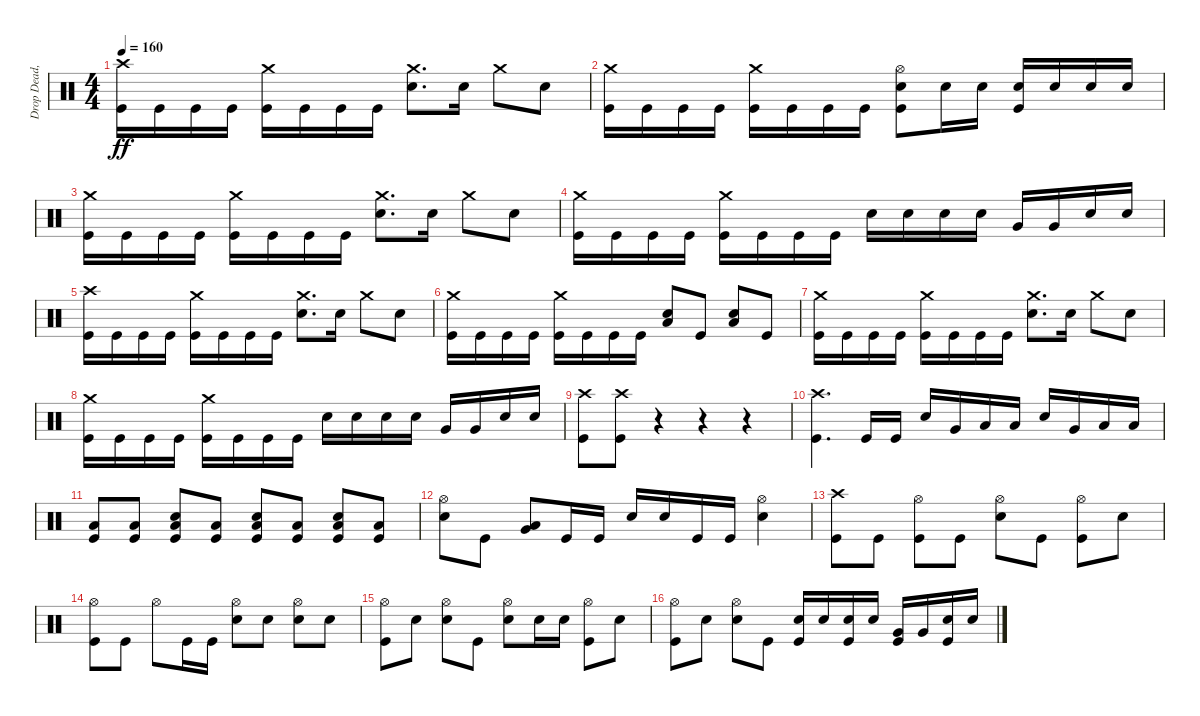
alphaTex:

\track ("Drop Dead, Johnny" "Drop Dead,") {instrument percussion}
\staff {score}
\articulation defaults
\ts (4 4)
\tempo 160
\clef neutral
\ks c
("Crash high (hit)" "Kick (hit)").16{dy ff} "Kick (hit)".16 "Kick (hit)".16 "Kick (hit)".16 ("Crash medium (hit)" "Kick (hit)").16 "Kick (hit)".16 "Kick (hit)".16 "Kick (hit)".16 ("Crash medium (hit)" "Electric Snare (hit)").8{d} "Electric Snare (hit)".16 "Crash medium (hit)".8 "Electric Snare (hit)".8 |
("Crash medium (hit)" "Kick (hit)").16 "Kick (hit)".16 "Kick (hit)".16 "Kick (hit)".16 ("Crash medium (hit)" "Kick (hit)").16 "Kick (hit)".16 "Kick (hit)".16 "Kick (hit)".16 ("Hi-Hat (open)" "Electric Snare (hit)" "Kick (hit)").8 "Electric Snare (hit)".16 "Electric Snare (hit)".16 ("Electric Snare (hit)" "Kick (hit)").16 "Electric Snare (hit)".16 "Electric Snare (hit)".16 "Electric Snare (hit)".16 |
("Crash medium (hit)" "Kick (hit)").16 "Kick (hit)".16 "Kick (hit)".16 "Kick (hit)".16 ("Crash medium (hit)" "Kick (hit)").16 "Kick (hit)".16 "Kick (hit)".16 "Kick (hit)".16 ("Crash medium (hit)" "Electric Snare (hit)").8{d} "Electric Snare (hit)".16 "Crash medium (hit)".8 "Electric Snare (hit)".8 |
("Crash medium (hit)" "Kick (hit)").16 "Kick (hit)".16 "Kick (hit)".16 "Kick (hit)".16 ("Crash medium (hit)" "Kick (hit)").16 "Kick (hit)".16 "Kick (hit)".16 "Kick (hit)".16 "Electric Snare (hit)".16 "Electric Snare (hit)".16 "Electric Snare (hit)".16 "Electric Snare (hit)".16 "Very Low Tom (hit)".16 "Very Low Tom (hit)".16 "Electric Snare (hit)".16 "Electric Snare (hit)".16 |
("Crash high (hit)" "Kick (hit)").16 "Kick (hit)".16 "Kick (hit)".16 "Kick (hit)".16 ("Crash medium (hit)" "Kick (hit)").16 "Kick (hit)".16 "Kick (hit)".16 "Kick (hit)".16 ("Crash medium (hit)" "Electric Snare (hit)").8{d} "Electric Snare (hit)".16 "Crash medium (hit)".8 "Electric Snare (hit)".8 |
("Crash medium (hit)" "Kick (hit)").16 "Kick (hit)".16 "Kick (hit)".16 "Kick (hit)".16 ("Crash medium (hit)" "Kick (hit)").16 "Kick (hit)".16 "Kick (hit)".16 "Kick (hit)".16 ("Low Floor Tom (hit)" "Electric Snare (hit)").8 "Kick (hit)".8 ("Low Floor Tom (hit)" "Electric Snare (hit)").8 "Kick (hit)".8 |
("Crash medium (hit)" "Kick (hit)").16 "Kick (hit)".16 "Kick (hit)".16 "Kick (hit)".16 ("Crash medium (hit)" "Kick (hit)").16 "Kick (hit)".16 "Kick (hit)".16 "Kick (hit)".16 ("Crash medium (hit)" "Electric Snare (hit)").8{d} "Electric Snare (hit)".16 "Crash medium (hit)".8 "Electric Snare (hit)".8 |
("Crash medium (hit)" "Kick (hit)").16 "Kick (hit)".16 "Kick (hit)".16 "Kick (hit)".16 ("Crash medium (hit)" "Kick (hit)").16 "Kick (hit)".16 "Kick (hit)".16 "Kick (hit)".16 "Electric Snare (hit)".16 "Electric Snare (hit)".16 "Electric Snare (hit)".16 "Electric Snare (hit)".16 "Very Low Tom (hit)".16 "Very Low Tom (hit)".16 "Electric Snare (hit)".16 "Electric Snare (hit)".16 |
("Crash high (hit)" "Kick (hit)").8 ("Crash high (hit)" "Kick (hit)").8 r.4{volume 0} r.4 r.4 |
("Crash high (hit)" "Kick (hit)").4{d volume 16} "Kick (hit)".16 "Kick (hit)".16 "Electric Snare (hit)".16 "Very Low Tom (hit)".16 "Low Floor Tom (hit)".16 "Low Floor Tom (hit)".16 "Electric Snare (hit)".16 "Very Low Tom (hit)".16 "Low Floor Tom (hit)".16 "Low Floor Tom (hit)".16 |
("Low Floor Tom (hit)" "Kick (hit)").8{volume 13} ("Low Floor Tom (hit)" "Kick (hit)").8{volume 16} ("Low Floor Tom (hit)" "Electric Snare (hit)" "Kick (hit)").8 ("Low Floor Tom (hit)" "Kick (hit)").8 ("Low Floor Tom (hit)" "Electric Snare (hit)" "Kick (hit)").8 ("Low Floor Tom (hit)" "Kick (hit)").8 ("Low Floor Tom (hit)" "Electric Snare (hit)" "Kick (hit)").8 ("Low Floor Tom (hit)" "Kick (hit)").8 |
("Hi-Hat (open)" "Electric Snare (hit)").8 "Kick (hit)".8 ("Very Low Tom (hit)" "Low Floor Tom (hit)").8 "Kick (hit)".16 "Kick (hit)".16 "Electric Snare (hit)".16 "Electric Snare (hit)".16 "Kick (hit)".16 "Kick (hit)".16 ("Hi-Hat (open)" "Electric Snare (hit)").4 |
("Crash high (hit)" "Kick (hit)").8 "Kick (hit)".8 ("Hi-Hat (open)" "Kick (hit)").8 "Kick (hit)".8 ("Hi-Hat (open)" "Electric Snare (hit)").8 "Kick (hit)".8 ("Hi-Hat (open)" "Kick (hit)").8 "Electric Snare (hit)".8 |
("Hi-Hat (open)" "Kick (hit)").8 "Kick (hit)".8 "Hi-Hat (open)".8 "Kick (hit)".16 "Kick (hit)".16 ("Hi-Hat (open)" "Electric Snare (hit)").8 "Electric Snare (hit)".8 ("Hi-Hat (open)" "Electric Snare (hit)").8 "Electric Snare (hit)".8 |
("Hi-Hat (open)" "Kick (hit)").8 "Electric Snare (hit)".8 ("Hi-Hat (open)" "Electric Snare (hit)").8 "Kick (hit)".8 ("Hi-Hat (open)" "Electric Snare (hit)").8 "Electric Snare (hit)".16 "Electric Snare (hit)".16 ("Hi-Hat (open)" "Kick (hit)").8 "Electric Snare (hit)".8 |
("Hi-Hat (open)" "Kick (hit)").8 "Electric Snare (hit)".8 ("Hi-Hat (open)" "Electric Snare (hit)").8 "Kick (hit)".8 ("Electric Snare (hit)" "Kick (hit)").16 "Electric Snare (hit)".16 ("Electric Snare (hit)" "Kick (hit)").16 "Electric Snare (hit)".16 ("Very Low Tom (hit)" "Kick (hit)").16 "Very Low Tom (hit)".16 ("Electric Snare (hit)" "Kick (hit)").16 "Electric Snare (hit)".16
